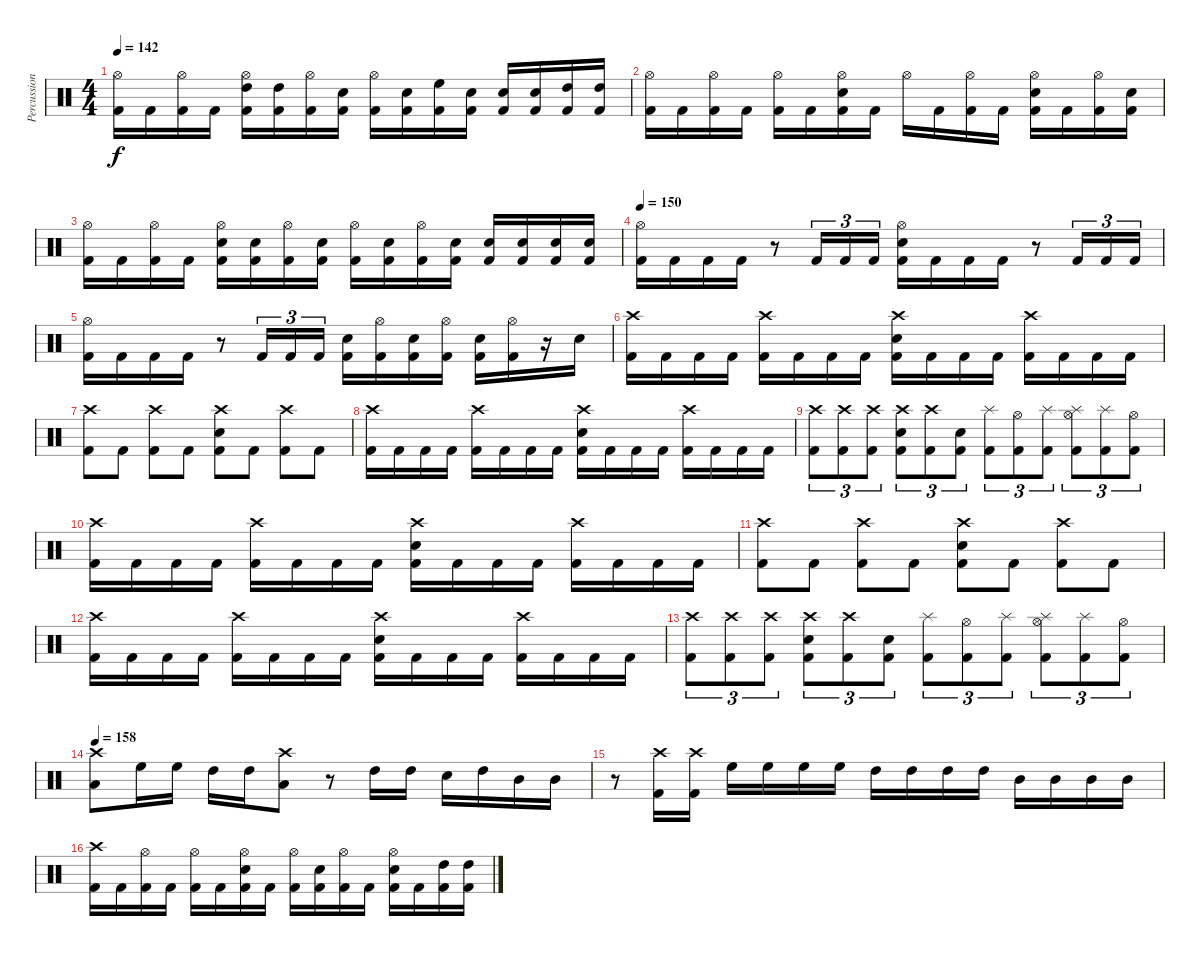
\track ("Percussion" "Percussion") {instrument percussion}
\staff {score}
\articulation defaults
\ts (4 4)
\tempo 142
\clef neutral
\ks c
("Hi-Hat (open)" "Kick (hit) 2").16{dy f} "Kick (hit) 2".16 ("Hi-Hat (open)" "Kick (hit) 2").16 "Kick (hit) 2".16 ("High Tom (hit)" "Hi-Hat (open)" "Kick (hit) 2").16 ("High Tom (hit)" "Kick (hit) 2").16 ("Hi-Hat (open)" "Kick (hit) 2").16 ("Electric Snare (hit)" "Kick (hit) 2").16 ("Hi-Hat (open)" "Kick (hit) 2").16 ("Electric Snare (hit)" "Kick (hit) 2").16 ("High Floor Tom (hit)" "Kick (hit) 2").16 ("Electric Snare (hit)" "Kick (hit) 2").16 ("Electric Snare (hit)" "Kick (hit) 2").16 ("Electric Snare (hit)" "Kick (hit) 2").16 ("High Tom (hit)" "Kick (hit) 2").16 ("High Tom (hit)" "Kick (hit) 2").16 |
("Hi-Hat (open)" "Kick (hit) 2").16 "Kick (hit) 2".16 ("Hi-Hat (open)" "Kick (hit) 2").16 "Kick (hit) 2".16 ("Hi-Hat (open)" "Kick (hit) 2").16 "Kick (hit) 2".16 ("Hi-Hat (open)" "Electric Snare (hit)" "Kick (hit) 2").16 "Kick (hit) 2".16 "Hi-Hat (open)".16 "Kick (hit) 2".16 ("Hi-Hat (open)" "Kick (hit) 2").16 "Kick (hit) 2".16 ("Hi-Hat (open)" "Electric Snare (hit)" "Kick (hit) 2").16 "Kick (hit) 2".16 ("Hi-Hat (open)" "Kick (hit) 2").16 ("Electric Snare (hit)" "Kick (hit) 2").16 |
("Hi-Hat (open)" "Kick (hit) 2").16 "Kick (hit) 2".16 ("Hi-Hat (open)" "Kick (hit) 2").16 "Kick (hit) 2".16 ("Hi-Hat (open)" "Electric Snare (hit)" "Kick (hit) 2").16 ("Electric Snare (hit)" "Kick (hit) 2").16 ("Hi-Hat (open)" "Kick (hit) 2").16 ("Electric Snare (hit)" "Kick (hit) 2").16 ("Hi-Hat (open)" "Kick (hit) 2").16 ("Electric Snare (hit)" "Kick (hit) 2").16 ("Hi-Hat (open)" "Kick (hit) 2").16 ("Electric Snare (hit)" "Kick (hit) 2").16 ("Electric Snare (hit)" "Kick (hit) 2").16 ("Electric Snare (hit)" "Kick (hit) 2").16 ("Electric Snare (hit)" "Kick (hit) 2").16 ("Electric Snare (hit)" "Kick (hit) 2").16 |
\tempo 150
("Hi-Hat (open)" "Kick (hit) 2").16 "Kick (hit) 2".16 "Kick (hit) 2".16 "Kick (hit) 2".16 r.8 "Kick (hit) 2".16{tu (3 2)} "Kick (hit) 2".16{tu (3 2)} "Kick (hit) 2".16{tu (3 2)} ("Hi-Hat (open)" "Electric Snare (hit)" "Kick (hit) 2").16 "Kick (hit) 2".16 "Kick (hit) 2".16 "Kick (hit) 2".16 r.8 "Kick (hit) 2".16{tu (3 2)} "Kick (hit) 2".16{tu (3 2)} "Kick (hit) 2".16{tu (3 2)} |
("Hi-Hat (open)" "Kick (hit) 2").16 "Kick (hit) 2".16 "Kick (hit) 2".16 "Kick (hit) 2".16 r.8 "Kick (hit) 2".16{tu (3 2)} "Kick (hit) 2".16{tu (3 2)} "Kick (hit) 2".16{tu (3 2)} ("Electric Snare (hit)" "Kick (hit) 2").16 ("Hi-Hat (open)" "Kick (hit) 2").16 ("Electric Snare (hit)" "Kick (hit) 2").16 ("Hi-Hat (open)" "Kick (hit) 2").16 ("Electric Snare (hit)" "Kick (hit) 2").16 ("Hi-Hat (open)" "Kick (hit) 2").16 r.16 "Electric Snare (hit)".16 |
("Crash high (hit)" "Kick (hit) 2").16 "Kick (hit) 2".16 "Kick (hit) 2".16 "Kick (hit) 2".16 ("Crash high (hit)" "Kick (hit) 2").16 "Kick (hit) 2".16 "Kick (hit) 2".16 "Kick (hit) 2".16 ("Crash high (hit)" "Electric Snare (hit)" "Kick (hit) 2").16 "Kick (hit) 2".16 "Kick (hit) 2".16 "Kick (hit) 2".16 ("Crash high (hit)" "Kick (hit) 2").16 "Kick (hit) 2".16 "Kick (hit) 2".16 "Kick (hit) 2".16 |
("Crash high (hit)" "Kick (hit) 2").8 "Kick (hit) 2".8 ("Crash high (hit)" "Kick (hit) 2").8 "Kick (hit) 2".8 ("Crash high (hit)" "Electric Snare (hit)" "Kick (hit) 2").8 "Kick (hit) 2".8 ("Crash high (hit)" "Kick (hit) 2").8 "Kick (hit) 2".8 |
("Crash high (hit)" "Kick (hit) 2").16 "Kick (hit) 2".16 "Kick (hit) 2".16 "Kick (hit) 2".16 ("Crash high (hit)" "Kick (hit) 2").16 "Kick (hit) 2".16 "Kick (hit) 2".16 "Kick (hit) 2".16 ("Crash high (hit)" "Electric Snare (hit)" "Kick (hit) 2").16 "Kick (hit) 2".16 "Kick (hit) 2".16 "Kick (hit) 2".16 ("Crash high (hit)" "Kick (hit) 2").16 "Kick (hit) 2".16 "Kick (hit) 2".16 "Kick (hit) 2".16 |
("Crash high (hit)" "Kick (hit) 2").8{tu (3 2)} ("Crash high (hit)" "Kick (hit) 2").8{tu (3 2)} ("Crash high (hit)" "Kick (hit) 2").8{tu (3 2)} ("Crash high (hit)" "Electric Snare (hit)" "Kick (hit) 2").8{tu (3 2)} ("Crash high (hit)" "Kick (hit) 2").8{tu (3 2)} ("Electric Snare (hit)" "Kick (hit) 2").8{tu (3 2)} ("Splash (hit)" "Kick (hit) 2").8{tu (3 2)} ("Hi-Hat (open)" "Kick (hit) 2").8{tu (3 2)} ("Splash (hit)" "Kick (hit) 2").8{tu (3 2)} ("Splash (hit)" "Hi-Hat (open)" "Kick (hit) 2").8{tu (3 2)} ("Splash (hit)" "Kick (hit) 2").8{tu (3 2)} ("Hi-Hat (open)" "Kick (hit) 2").8{tu (3 2)} |
("Crash high (hit)" "Kick (hit) 2").16 "Kick (hit) 2".16 "Kick (hit) 2".16 "Kick (hit) 2".16 ("Crash high (hit)" "Kick (hit) 2").16 "Kick (hit) 2".16 "Kick (hit) 2".16 "Kick (hit) 2".16 ("Crash high (hit)" "Electric Snare (hit)" "Kick (hit) 2").16 "Kick (hit) 2".16 "Kick (hit) 2".16 "Kick (hit) 2".16 ("Crash high (hit)" "Kick (hit) 2").16 "Kick (hit) 2".16 "Kick (hit) 2".16 "Kick (hit) 2".16 |
("Crash high (hit)" "Kick (hit) 2").8 "Kick (hit) 2".8 ("Crash high (hit)" "Kick (hit) 2").8 "Kick (hit) 2".8 ("Crash high (hit)" "Electric Snare (hit)" "Kick (hit) 2").8 "Kick (hit) 2".8 ("Crash high (hit)" "Kick (hit) 2").8 "Kick (hit) 2".8 |
("Crash high (hit)" "Kick (hit) 2").16 "Kick (hit) 2".16 "Kick (hit) 2".16 "Kick (hit) 2".16 ("Crash high (hit)" "Kick (hit) 2").16 "Kick (hit) 2".16 "Kick (hit) 2".16 "Kick (hit) 2".16 ("Crash high (hit)" "Electric Snare (hit)" "Kick (hit) 2").16 "Kick (hit) 2".16 "Kick (hit) 2".16 "Kick (hit) 2".16 ("Crash high (hit)" "Kick (hit) 2").16 "Kick (hit) 2".16 "Kick (hit) 2".16 "Kick (hit) 2".16 |
("Crash high (hit)" "Kick (hit) 2").8{tu (3 2)} ("Crash high (hit)" "Kick (hit) 2").8{tu (3 2)} ("Crash high (hit)" "Kick (hit) 2").8{tu (3 2)} ("Crash high (hit)" "Electric Snare (hit)" "Kick (hit) 2").8{tu (3 2)} ("Crash high (hit)" "Kick (hit) 2").8{tu (3 2)} ("Electric Snare (hit)" "Kick (hit) 2").8{tu (3 2)} ("Splash (hit)" "Kick (hit) 2").8{tu (3 2)} ("Hi-Hat (open)" "Kick (hit) 2").8{tu (3 2)} ("Splash (hit)" "Kick (hit) 2").8{tu (3 2)} ("Splash (hit)" "Hi-Hat (open)" "Kick (hit) 2").8{tu (3 2)} ("Splash (hit)" "Kick (hit) 2").8{tu (3 2)} ("Hi-Hat (open)" "Kick (hit) 2").8{tu (3 2)} |
\tempo 158
("Crash high (hit)" "Low Floor Tom (hit)").8 "High Floor Tom (hit)".16 "High Floor Tom (hit)".16 "High Tom (hit)".16 "High Tom (hit)".16 ("Crash high (hit)" "Low Floor Tom (hit)").8 r.8 "High Tom (hit)".16 "High Tom (hit)".16 "Electric Snare (hit)".16 "High Tom (hit)".16 "Mid Tom (hit)".16 "Mid Tom (hit)".16 |
r.8 ("Crash high (hit)" "Kick (hit) 2").16 ("Crash high (hit)" "Kick (hit) 2").16 "High Floor Tom (hit)".16 "High Floor Tom (hit)".16 "High Floor Tom (hit)".16 "High Floor Tom (hit)".16 "High Tom (hit)".16 "High Tom (hit)".16 "High Tom (hit)".16 "High Tom (hit)".16 "Mid Tom (hit)".16 "Mid Tom (hit)".16 "Mid Tom (hit)".16 "Mid Tom (hit)".16 |
("Crash high (hit)" "Kick (hit) 2").16 "Kick (hit) 2".16 ("Hi-Hat (open)" "Kick (hit) 2").16 "Kick (hit) 2".16 ("Hi-Hat (open)" "Kick (hit) 2").16 "Kick (hit) 2".16 ("Hi-Hat (open)" "Electric Snare (hit)" "Kick (hit) 2").16 "Kick (hit) 2".16 ("Hi-Hat (open)" "Kick (hit) 2").16 ("Electric Snare (hit)" "Kick (hit) 2").16 ("Hi-Hat (open)" "Kick (hit) 2").16 "Kick (hit) 2".16 ("Hi-Hat (open)" "Electric Snare (hit)" "Kick (hit) 2").16 "Kick (hit) 2".16 ("High Tom (hit)" "Kick (hit) 2").16 ("High Tom (hit)" "Kick (hit) 2").16
